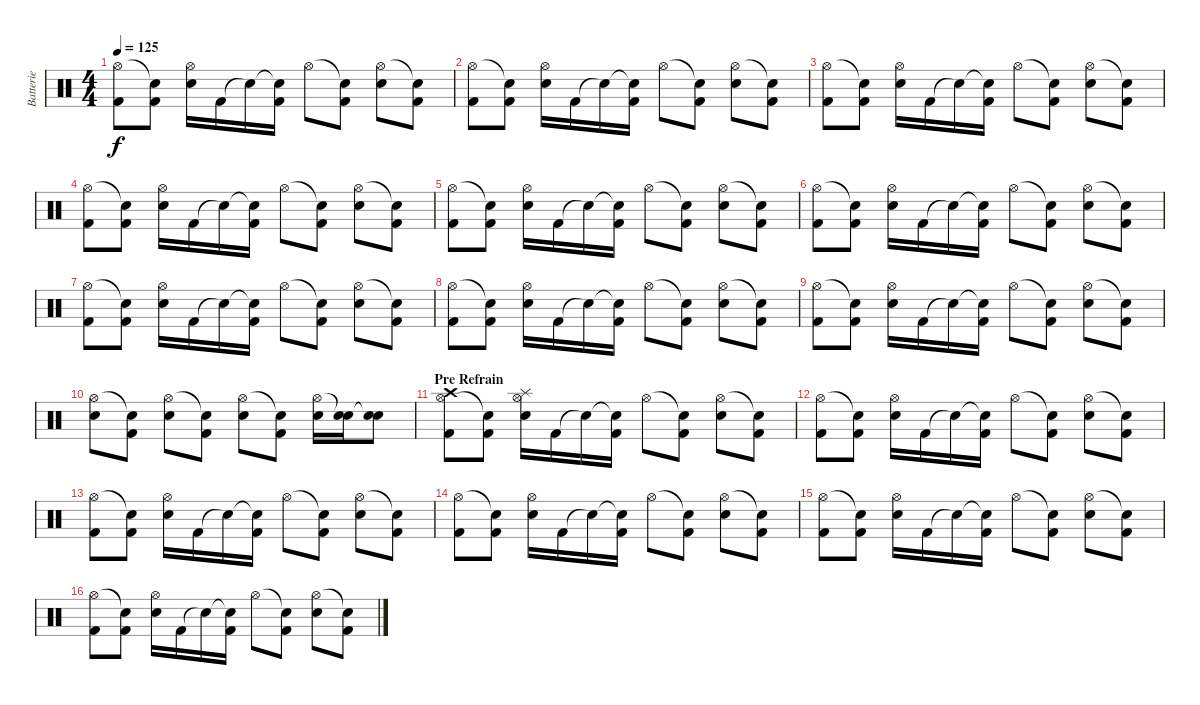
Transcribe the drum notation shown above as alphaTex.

\track ("Batterie" "Batterie") {instrument percussion}
\staff {score}
\articulation defaults
\ts (4 4)
\tempo 125
\clef neutral
\ks c
("Hi-Hat (open)" "Kick (hit) 2").8{dy f} ("Snare (hit)"{t} "Kick (hit) 2").8 ("Hi-Hat (open)" "Electric Snare (hit)").16 "Kick (hit) 2".16 "Snare (hit)"{t}.16 ("Snare (hit)"{t} "Kick (hit) 2").16 "Hi-Hat (open)".8 ("Snare (hit)"{t} "Kick (hit) 2").8 ("Hi-Hat (open)" "Electric Snare (hit)").8 ("Snare (hit)"{t} "Kick (hit) 2").8 |
("Hi-Hat (open)" "Kick (hit) 2").8 ("Snare (hit)"{t} "Kick (hit) 2").8 ("Hi-Hat (open)" "Electric Snare (hit)").16 "Kick (hit) 2".16 "Snare (hit)"{t}.16 ("Snare (hit)"{t} "Kick (hit) 2").16 "Hi-Hat (open)".8 ("Snare (hit)"{t} "Kick (hit) 2").8 ("Hi-Hat (open)" "Electric Snare (hit)").8 ("Snare (hit)"{t} "Kick (hit) 2").8 |
("Hi-Hat (open)" "Kick (hit) 2").8 ("Snare (hit)"{t} "Kick (hit) 2").8 ("Hi-Hat (open)" "Electric Snare (hit)").16 "Kick (hit) 2".16 "Snare (hit)"{t}.16 ("Snare (hit)"{t} "Kick (hit) 2").16 "Hi-Hat (open)".8 ("Snare (hit)"{t} "Kick (hit) 2").8 ("Hi-Hat (open)" "Electric Snare (hit)").8 ("Snare (hit)"{t} "Kick (hit) 2").8 |
("Hi-Hat (open)" "Kick (hit) 2").8 ("Snare (hit)"{t} "Kick (hit) 2").8 ("Hi-Hat (open)" "Electric Snare (hit)").16 "Kick (hit) 2".16 "Snare (hit)"{t}.16 ("Snare (hit)"{t} "Kick (hit) 2").16 "Hi-Hat (open)".8 ("Snare (hit)"{t} "Kick (hit) 2").8 ("Hi-Hat (open)" "Electric Snare (hit)").8 ("Snare (hit)"{t} "Kick (hit) 2").8 |
("Hi-Hat (open)" "Kick (hit) 2").8 ("Snare (hit)"{t} "Kick (hit) 2").8 ("Hi-Hat (open)" "Electric Snare (hit)").16 "Kick (hit) 2".16 "Snare (hit)"{t}.16 ("Snare (hit)"{t} "Kick (hit) 2").16 "Hi-Hat (open)".8 ("Snare (hit)"{t} "Kick (hit) 2").8 ("Hi-Hat (open)" "Electric Snare (hit)").8 ("Snare (hit)"{t} "Kick (hit) 2").8 |
("Hi-Hat (open)" "Kick (hit) 2").8 ("Snare (hit)"{t} "Kick (hit) 2").8 ("Hi-Hat (open)" "Electric Snare (hit)").16 "Kick (hit) 2".16 "Snare (hit)"{t}.16 ("Snare (hit)"{t} "Kick (hit) 2").16 "Hi-Hat (open)".8 ("Snare (hit)"{t} "Kick (hit) 2").8 ("Hi-Hat (open)" "Electric Snare (hit)").8 ("Snare (hit)"{t} "Kick (hit) 2").8 |
("Hi-Hat (open)" "Kick (hit) 2").8 ("Snare (hit)"{t} "Kick (hit) 2").8 ("Hi-Hat (open)" "Electric Snare (hit)").16 "Kick (hit) 2".16 "Snare (hit)"{t}.16 ("Snare (hit)"{t} "Kick (hit) 2").16 "Hi-Hat (open)".8 ("Snare (hit)"{t} "Kick (hit) 2").8 ("Hi-Hat (open)" "Electric Snare (hit)").8 ("Snare (hit)"{t} "Kick (hit) 2").8 |
("Hi-Hat (open)" "Kick (hit) 2").8 ("Snare (hit)"{t} "Kick (hit) 2").8 ("Hi-Hat (open)" "Electric Snare (hit)").16 "Kick (hit) 2".16 "Snare (hit)"{t}.16 ("Snare (hit)"{t} "Kick (hit) 2").16 "Hi-Hat (open)".8 ("Snare (hit)"{t} "Kick (hit) 2").8 ("Hi-Hat (open)" "Electric Snare (hit)").8 ("Snare (hit)"{t} "Kick (hit) 2").8 |
("Hi-Hat (open)" "Kick (hit) 2").8 ("Snare (hit)"{t} "Kick (hit) 2").8 ("Hi-Hat (open)" "Electric Snare (hit)").16 "Kick (hit) 2".16 "Snare (hit)"{t}.16 ("Snare (hit)"{t} "Kick (hit) 2").16 "Hi-Hat (open)".8 ("Snare (hit)"{t} "Kick (hit) 2").8 ("Hi-Hat (open)" "Electric Snare (hit)").8 ("Snare (hit)"{t} "Kick (hit) 2").8 |
("Hi-Hat (open)" "Electric Snare (hit)").8 ("Snare (hit)"{t} "Kick (hit) 2").8 ("Hi-Hat (open)" "Electric Snare (hit)").8 ("Snare (hit)"{t} "Kick (hit) 2").8 ("Hi-Hat (open)" "Electric Snare (hit)").8 ("Snare (hit)"{t} "Kick (hit) 2").8 ("Hi-Hat (open)" "Electric Snare (hit)").16 ("Snare (hit)"{t} "Electric Snare (hit)").16 ("Snare (hit)"{t} "Electric Snare (hit)").8 |
\section ("" "Pre Refrain")
("Hi-Hat (open)" "Crash high (hit)" "Kick (hit) 2").8 ("Snare (hit)"{t} "Kick (hit) 2").8 ("Hi-Hat (open)" "Splash (hit)" "Electric Snare (hit)").16 "Kick (hit) 2".16 "Snare (hit)"{t}.16 ("Snare (hit)"{t} "Kick (hit) 2").16 "Hi-Hat (open)".8 ("Snare (hit)"{t} "Kick (hit) 2").8 ("Hi-Hat (open)" "Electric Snare (hit)").8 ("Snare (hit)"{t} "Kick (hit) 2").8 |
("Hi-Hat (open)" "Kick (hit) 2").8 ("Snare (hit)"{t} "Kick (hit) 2").8 ("Hi-Hat (open)" "Electric Snare (hit)").16 "Kick (hit) 2".16 "Snare (hit)"{t}.16 ("Snare (hit)"{t} "Kick (hit) 2").16 "Hi-Hat (open)".8 ("Snare (hit)"{t} "Kick (hit) 2").8 ("Hi-Hat (open)" "Electric Snare (hit)").8 ("Snare (hit)"{t} "Kick (hit) 2").8 |
("Hi-Hat (open)" "Kick (hit) 2").8 ("Snare (hit)"{t} "Kick (hit) 2").8 ("Hi-Hat (open)" "Electric Snare (hit)").16 "Kick (hit) 2".16 "Snare (hit)"{t}.16 ("Snare (hit)"{t} "Kick (hit) 2").16 "Hi-Hat (open)".8 ("Snare (hit)"{t} "Kick (hit) 2").8 ("Hi-Hat (open)" "Electric Snare (hit)").8 ("Snare (hit)"{t} "Kick (hit) 2").8 |
("Hi-Hat (open)" "Kick (hit) 2").8 ("Snare (hit)"{t} "Kick (hit) 2").8 ("Hi-Hat (open)" "Electric Snare (hit)").16 "Kick (hit) 2".16 "Snare (hit)"{t}.16 ("Snare (hit)"{t} "Kick (hit) 2").16 "Hi-Hat (open)".8 ("Snare (hit)"{t} "Kick (hit) 2").8 ("Hi-Hat (open)" "Electric Snare (hit)").8 ("Snare (hit)"{t} "Kick (hit) 2").8 |
("Hi-Hat (open)" "Kick (hit) 2").8 ("Snare (hit)"{t} "Kick (hit) 2").8 ("Hi-Hat (open)" "Electric Snare (hit)").16 "Kick (hit) 2".16 "Snare (hit)"{t}.16 ("Snare (hit)"{t} "Kick (hit) 2").16 "Hi-Hat (open)".8 ("Snare (hit)"{t} "Kick (hit) 2").8 ("Hi-Hat (open)" "Electric Snare (hit)").8 ("Snare (hit)"{t} "Kick (hit) 2").8 |
("Hi-Hat (open)" "Kick (hit) 2").8 ("Snare (hit)"{t} "Kick (hit) 2").8 ("Hi-Hat (open)" "Electric Snare (hit)").16 "Kick (hit) 2".16 "Snare (hit)"{t}.16 ("Snare (hit)"{t} "Kick (hit) 2").16 "Hi-Hat (open)".8 ("Snare (hit)"{t} "Kick (hit) 2").8 ("Hi-Hat (open)" "Electric Snare (hit)").8 ("Snare (hit)"{t} "Kick (hit) 2").8
